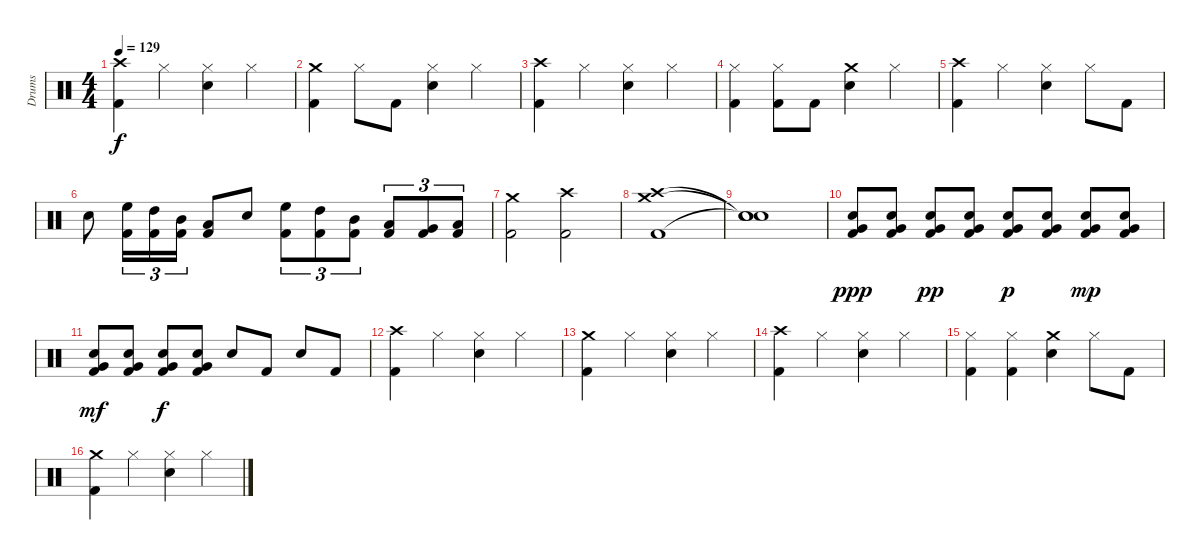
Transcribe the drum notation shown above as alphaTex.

\track ("Drums" "Drums") {instrument percussion}
\staff {score}
\articulation defaults
\ts (4 4)
\tempo 129
\clef neutral
\ks c
("Kick (hit) 2" "Crash high (hit)").4{dy f} "Hi-Hat (closed)".4 ("Electric Snare (hit)" "Hi-Hat (closed)").4 "Hi-Hat (closed)".4 |
("Kick (hit) 2" "Crash medium (hit)").4 "Hi-Hat (closed)".8 "Kick (hit) 2".8 ("Electric Snare (hit)" "Hi-Hat (closed)").4 "Hi-Hat (closed)".4 |
("Kick (hit) 2" "Crash high (hit)").4 "Hi-Hat (closed)".4 ("Electric Snare (hit)" "Hi-Hat (closed)").4 "Hi-Hat (closed)".4 |
("Kick (hit) 2" "Hi-Hat (closed)").4 ("Kick (hit) 2" "Hi-Hat (closed)").8 "Kick (hit) 2".8 ("Electric Snare (hit)" "Crash medium (hit)").4 "Hi-Hat (closed)".4 |
("Kick (hit) 2" "Crash high (hit)").4 "Hi-Hat (closed)".4 ("Electric Snare (hit)" "Hi-Hat (closed)").4 "Hi-Hat (closed)".8 "Kick (hit) 2".8 |
"Electric Snare (hit)".8 ("Kick (hit) 2" "High Floor Tom (hit)").16{tu (3 2)} ("Kick (hit) 2" "High Tom (hit)").16{tu (3 2)} ("Kick (hit) 2" "Mid Tom (hit)").16{tu (3 2)} ("Kick (hit) 2" "Low Tom (hit)").8 "Electric Snare (hit)".8 ("Kick (hit) 2" "High Floor Tom (hit)").8{tu (3 2)} ("Kick (hit) 2" "High Tom (hit)").8{tu (3 2)} ("Kick (hit) 2" "Mid Tom (hit)").8{tu (3 2)} ("Kick (hit) 2" "Low Tom (hit)").8{tu (3 2)} ("Kick (hit) 2" "Very Low Tom (hit)").8{tu (3 2)} ("Kick (hit) 2" "Low Floor Tom (hit)").8{tu (3 2)} |
("Kick (hit) 2" "Crash medium (hit)").2 ("Kick (hit) 2" "Crash high (hit)").2 |
("Kick (hit) 2" "Crash high (hit)" "Crash medium (hit)").1 |
("Snare (hit)"{t} "Snare (hit)"{t} "Snare (hit)"{t}).1 |
("Kick (hit) 2" "Electric Snare (hit)" "Very Low Tom (hit)").8{dy ppp} ("Kick (hit) 2" "Electric Snare (hit)" "Very Low Tom (hit)").8 ("Kick (hit) 2" "Electric Snare (hit)" "Very Low Tom (hit)").8{dy pp} ("Kick (hit) 2" "Electric Snare (hit)" "Very Low Tom (hit)").8 ("Kick (hit) 2" "Electric Snare (hit)" "Very Low Tom (hit)").8{dy p} ("Kick (hit) 2" "Electric Snare (hit)" "Very Low Tom (hit)").8 ("Kick (hit) 2" "Electric Snare (hit)" "Very Low Tom (hit)").8{dy mp} ("Kick (hit) 2" "Electric Snare (hit)" "Very Low Tom (hit)").8 |
("Kick (hit) 2" "Electric Snare (hit)" "Very Low Tom (hit)").8{dy mf} ("Kick (hit) 2" "Electric Snare (hit)" "Very Low Tom (hit)").8 ("Kick (hit) 2" "Electric Snare (hit)" "Very Low Tom (hit)").8{dy f} ("Kick (hit) 2" "Electric Snare (hit)" "Very Low Tom (hit)").8 "Electric Snare (hit)".8 "Kick (hit) 2".8 "Electric Snare (hit)".8 "Kick (hit) 2".8 |
("Kick (hit) 2" "Crash high (hit)").4 "Hi-Hat (closed)".4 ("Electric Snare (hit)" "Hi-Hat (closed)").4 "Hi-Hat (closed)".4 |
("Kick (hit) 2" "Crash medium (hit)").4 "Hi-Hat (closed)".4 ("Electric Snare (hit)" "Hi-Hat (closed)").4 "Hi-Hat (closed)".4 |
("Kick (hit) 2" "Crash high (hit)").4 "Hi-Hat (closed)".4 ("Electric Snare (hit)" "Hi-Hat (closed)").4 "Hi-Hat (closed)".4 |
("Kick (hit) 2" "Hi-Hat (closed)").4 ("Kick (hit) 2" "Hi-Hat (closed)").4 ("Electric Snare (hit)" "Crash medium (hit)").4 "Hi-Hat (closed)".8 "Kick (hit) 2".8 |
\section ("" "")
("Kick (hit) 2" "Crash medium (hit)").4 "Hi-Hat (closed)".4 ("Electric Snare (hit)" "Hi-Hat (closed)").4 "Hi-Hat (closed)".4
